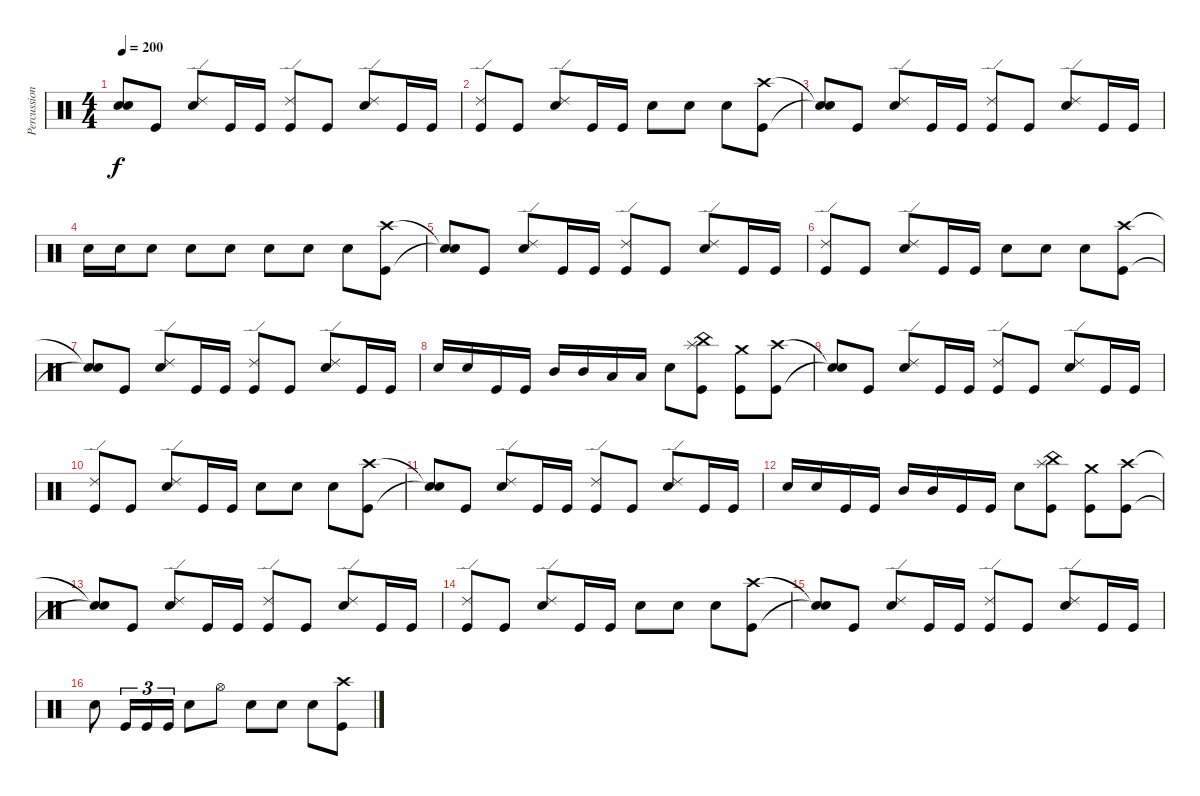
\track ("Percussioni" "Percussion") {instrument percussion}
\staff {score}
\articulation defaults
\ts (4 4)
\tempo 200
\clef neutral
\ks c
("Snare (hit)"{t} "Snare (hit)"{t}).8{dy f} "Kick (hit)".8 ("Ride (edge) 2" "Electric Snare (hit)").8 "Kick (hit)".16 "Kick (hit)".16 ("Ride (edge) 2" "Kick (hit)").8 "Kick (hit)".8 ("Ride (edge) 2" "Electric Snare (hit)").8 "Kick (hit)".16 "Kick (hit)".16 |
("Ride (edge) 2" "Kick (hit)").8 "Kick (hit)".8 ("Ride (edge) 2" "Electric Snare (hit)").8 "Kick (hit)".16 "Kick (hit)".16 "Electric Snare (hit)".8 "Electric Snare (hit)".8 "Electric Snare (hit)".8 ("Crash high (hit)" "Kick (hit)").8 |
("Snare (hit)"{t} "Snare (hit)"{t}).8 "Kick (hit)".8 ("Ride (edge) 2" "Electric Snare (hit)").8 "Kick (hit)".16 "Kick (hit)".16 ("Ride (edge) 2" "Kick (hit)").8 "Kick (hit)".8 ("Ride (edge) 2" "Electric Snare (hit)").8 "Kick (hit)".16 "Kick (hit)".16 |
"Electric Snare (hit)".16 "Electric Snare (hit)".16 "Electric Snare (hit)".8 "Electric Snare (hit)".8 "Electric Snare (hit)".8 "Electric Snare (hit)".8 "Electric Snare (hit)".8 "Electric Snare (hit)".8 ("Crash high (hit)" "Kick (hit)").8 |
("Snare (hit)"{t} "Snare (hit)"{t}).8 "Kick (hit)".8 ("Ride (edge) 2" "Electric Snare (hit)").8 "Kick (hit)".16 "Kick (hit)".16 ("Ride (edge) 2" "Kick (hit)").8 "Kick (hit)".8 ("Ride (edge) 2" "Electric Snare (hit)").8 "Kick (hit)".16 "Kick (hit)".16 |
("Ride (edge) 2" "Kick (hit)").8 "Kick (hit)".8 ("Ride (edge) 2" "Electric Snare (hit)").8 "Kick (hit)".16 "Kick (hit)".16 "Electric Snare (hit)".8 "Electric Snare (hit)".8 "Electric Snare (hit)".8 ("Crash high (hit)" "Kick (hit)").8 |
("Snare (hit)"{t} "Snare (hit)"{t}).8 "Kick (hit)".8 ("Ride (edge) 2" "Electric Snare (hit)").8 "Kick (hit)".16 "Kick (hit)".16 ("Ride (edge) 2" "Kick (hit)").8 "Kick (hit)".8 ("Ride (edge) 2" "Electric Snare (hit)").8 "Kick (hit)".16 "Kick (hit)".16 |
"Electric Snare (hit)".16 "Electric Snare (hit)".16 "Kick (hit)".16 "Kick (hit)".16 "Mid Tom (hit)".16 "Mid Tom (hit)".16 "Low Tom (hit)".16 "Low Tom (hit)".16 "Electric Snare (hit)".8 ("Splash (hit)" "China (hit)" "Kick (hit)").8 ("Crash medium (hit)" "Kick (hit)").8 ("Crash high (hit)" "Kick (hit)").8 |
("Snare (hit)"{t} "Snare (hit)"{t}).8 "Kick (hit)".8 ("Ride (edge) 2" "Electric Snare (hit)").8 "Kick (hit)".16 "Kick (hit)".16 ("Ride (edge) 2" "Kick (hit)").8 "Kick (hit)".8 ("Ride (edge) 2" "Electric Snare (hit)").8 "Kick (hit)".16 "Kick (hit)".16 |
("Ride (edge) 2" "Kick (hit)").8 "Kick (hit)".8 ("Ride (edge) 2" "Electric Snare (hit)").8 "Kick (hit)".16 "Kick (hit)".16 "Electric Snare (hit)".8 "Electric Snare (hit)".8 "Electric Snare (hit)".8 ("Crash high (hit)" "Kick (hit)").8 |
("Snare (hit)"{t} "Snare (hit)"{t}).8 "Kick (hit)".8 ("Ride (edge) 2" "Electric Snare (hit)").8 "Kick (hit)".16 "Kick (hit)".16 ("Ride (edge) 2" "Kick (hit)").8 "Kick (hit)".8 ("Ride (edge) 2" "Electric Snare (hit)").8 "Kick (hit)".16 "Kick (hit)".16 |
"Electric Snare (hit)".16 "Electric Snare (hit)".16 "Kick (hit)".16 "Kick (hit)".16 "Mid Tom (hit)".16 "Mid Tom (hit)".16 "Kick (hit)".16 "Kick (hit)".16 "Electric Snare (hit)".8 ("Splash (hit)" "China (hit)" "Kick (hit)").8 ("Crash medium (hit)" "Kick (hit)").8 ("Crash high (hit)" "Kick (hit)").8 |
("Snare (hit)"{t} "Snare (hit)"{t}).8 "Kick (hit)".8 ("Ride (edge) 2" "Electric Snare (hit)").8 "Kick (hit)".16 "Kick (hit)".16 ("Ride (edge) 2" "Kick (hit)").8 "Kick (hit)".8 ("Ride (edge) 2" "Electric Snare (hit)").8 "Kick (hit)".16 "Kick (hit)".16 |
("Ride (edge) 2" "Kick (hit)").8 "Kick (hit)".8 ("Ride (edge) 2" "Electric Snare (hit)").8 "Kick (hit)".16 "Kick (hit)".16 "Electric Snare (hit)".8 "Electric Snare (hit)".8 "Electric Snare (hit)".8 ("Crash high (hit)" "Kick (hit)").8 |
("Snare (hit)"{t} "Snare (hit)"{t}).8 "Kick (hit)".8 ("Ride (edge) 2" "Electric Snare (hit)").8 "Kick (hit)".16 "Kick (hit)".16 ("Ride (edge) 2" "Kick (hit)").8 "Kick (hit)".8 ("Ride (edge) 2" "Electric Snare (hit)").8 "Kick (hit)".16 "Kick (hit)".16 |
"Electric Snare (hit)".8 "Kick (hit)".16{tu (3 2)} "Kick (hit)".16{tu (3 2)} "Kick (hit)".16{tu (3 2)} "Electric Snare (hit)".8 "Hi-Hat (open)".8 "Electric Snare (hit)".8 "Electric Snare (hit)".8 "Electric Snare (hit)".8 ("Crash high (hit)" "Kick (hit)").8
